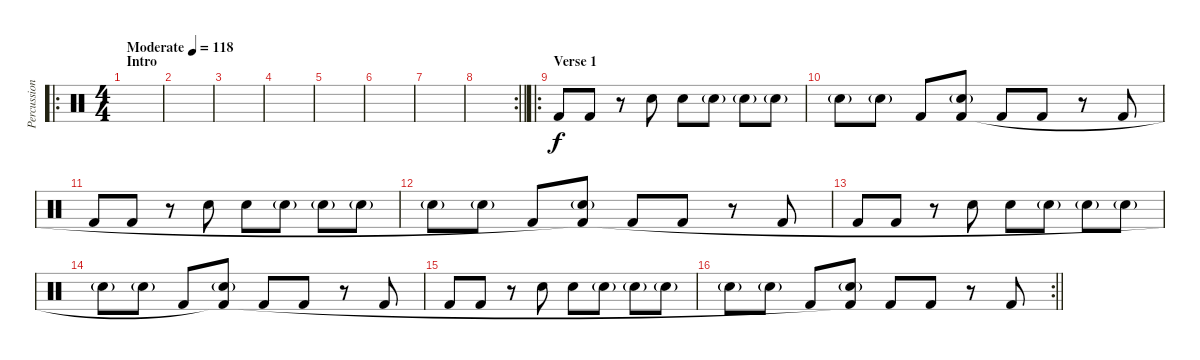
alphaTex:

\track ("Percussion" "Percussion") {instrument percussion}
\staff {score}
\articulation defaults
\ro
\ts (4 4)
\section ("" "Intro")
\tempo (118 "Moderate")
\clef neutral
\ks c
|
|
|
|
|
|
|
\rc 2
\barLineRight lightlight
|
\ro
\section ("" "Verse 1")
"Kick (hit) 2".8{volume 6} "Kick (hit) 2".8 r.8 "Snare (hit) 2".8 "Snare (hit) 2".8 "Snare (hit) 2"{g}.8 "Snare (hit) 2"{g}.8 "Snare (hit) 2"{g}.8 |
"Snare (hit) 2"{g}.8 "Snare (hit) 2"{g}.8 "Kick (hit) 2".8 ("Snare (hit) 2"{g} "Kick (hit) 2").8 "Kick (hit) 2".8 "Kick (hit) 2".8 r.8 "Kick (hit) 2".8 |
"Kick (hit) 2".8 "Kick (hit) 2".8 r.8 "Snare (hit) 2".8 "Snare (hit) 2".8 "Snare (hit) 2"{g}.8 "Snare (hit) 2"{g}.8 "Snare (hit) 2"{g}.8 |
"Snare (hit) 2"{g}.8 "Snare (hit) 2"{g}.8 "Kick (hit) 2".8 ("Snare (hit) 2"{g} "Kick (hit) 2"{t}).8 "Kick (hit) 2".8 "Kick (hit) 2".8 r.8 "Kick (hit) 2".8 |
"Kick (hit) 2".8 "Kick (hit) 2".8 r.8 "Snare (hit) 2".8 "Snare (hit) 2".8 "Snare (hit) 2"{g}.8 "Snare (hit) 2"{g}.8 "Snare (hit) 2"{g}.8 |
"Snare (hit) 2"{g}.8 "Snare (hit) 2"{g}.8 "Kick (hit) 2".8 ("Snare (hit) 2"{g} "Kick (hit) 2"{t}).8 "Kick (hit) 2".8 "Kick (hit) 2".8 r.8 "Kick (hit) 2".8 |
"Kick (hit) 2".8 "Kick (hit) 2".8 r.8 "Snare (hit) 2".8 "Snare (hit) 2".8 "Snare (hit) 2"{g}.8 "Snare (hit) 2"{g}.8 "Snare (hit) 2"{g}.8 |
\rc 2
\barLineRight lightlight "Snare (hit) 2"{g}.8 "Snare (hit) 2"{g}.8 "Kick (hit) 2".8
("Snare (hit) 2"{g} "Kick (hit) 2"{t}).8 "Kick (hit) 2".8 "Kick (hit) 2".8 r.8 "Kick (hit) 2".8
